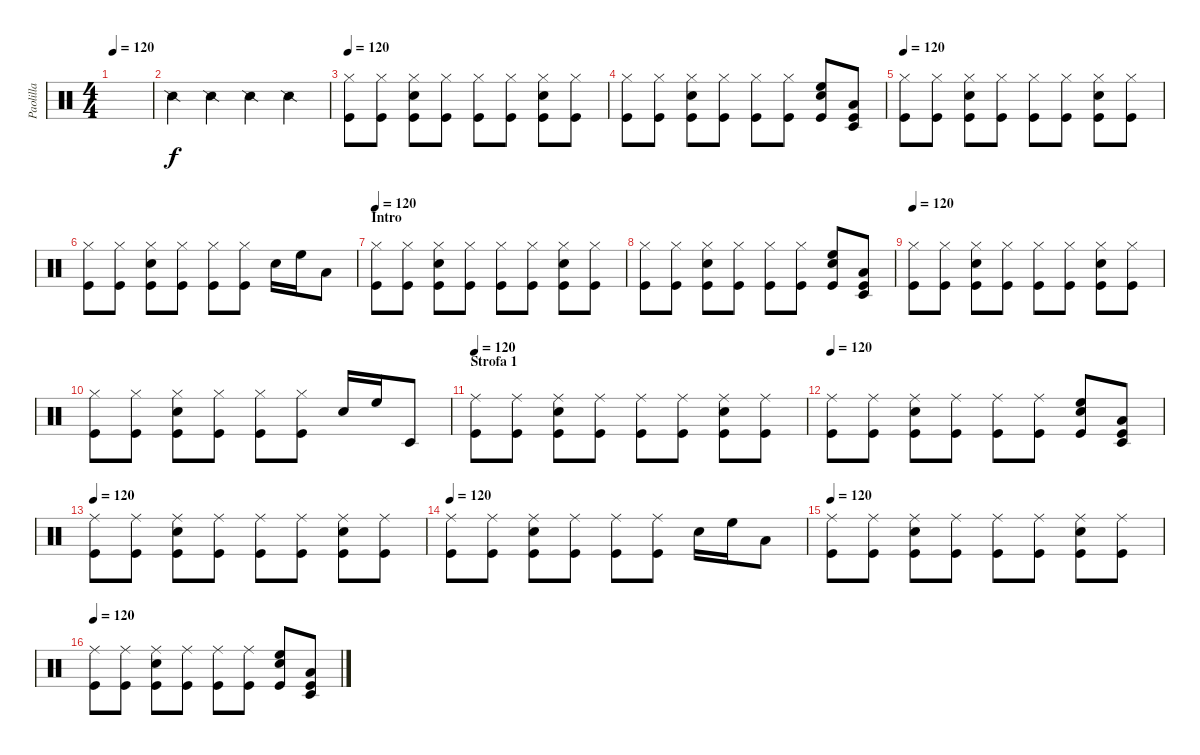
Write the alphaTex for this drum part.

\track ("Paolilla" "Paolilla") {instrument percussion}
\staff {score}
\articulation defaults
\ts (4 4)
\tempo 120
\clef neutral
\ks c
|
"Snare (side stick) 2".4 "Snare (side stick) 2".4 "Snare (side stick) 2".4 "Snare (side stick) 2".4 |
\tempo 120
("Hi-Hat (closed)" "Kick (hit)").8 ("Hi-Hat (closed)" "Kick (hit)").8 ("Hi-Hat (closed)" "Snare (hit) 2" "Kick (hit)").8 ("Hi-Hat (closed)" "Kick (hit)").8 ("Hi-Hat (closed)" "Kick (hit)").8 ("Hi-Hat (closed)" "Kick (hit)").8 ("Hi-Hat (closed)" "Snare (hit) 2" "Kick (hit)").8 ("Hi-Hat (closed)" "Kick (hit)").8 |
("Hi-Hat (closed)" "Kick (hit)").8 ("Hi-Hat (closed)" "Kick (hit)").8 ("Hi-Hat (closed)" "Snare (hit) 2" "Kick (hit)").8 ("Hi-Hat (closed)" "Kick (hit)").8 ("Hi-Hat (closed)" "Kick (hit)").8 ("Hi-Hat (closed)" "Kick (hit)").8 ("Snare (hit) 2" "High Floor Tom (hit)" "Kick (hit)").8 ("Timbale low (hit)" "Low Tom (hit)" "Kick (hit)").8 |
\tempo 120
("Hi-Hat (closed)" "Kick (hit)").8 ("Hi-Hat (closed)" "Kick (hit)").8 ("Hi-Hat (closed)" "Snare (hit) 2" "Kick (hit)").8 ("Hi-Hat (closed)" "Kick (hit)").8 ("Hi-Hat (closed)" "Kick (hit)").8 ("Hi-Hat (closed)" "Kick (hit)").8 ("Hi-Hat (closed)" "Snare (hit) 2" "Kick (hit)").8 ("Hi-Hat (closed)" "Kick (hit)").8 |
("Hi-Hat (closed)" "Kick (hit)").8 ("Hi-Hat (closed)" "Kick (hit)").8 ("Hi-Hat (closed)" "Snare (hit) 2" "Kick (hit)").8 ("Hi-Hat (closed)" "Kick (hit)").8 ("Hi-Hat (closed)" "Kick (hit)").8 ("Hi-Hat (closed)" "Kick (hit)").8 "Snare (hit) 2".16 "High Floor Tom (hit)".16 "Low Tom (hit)".8 |
\section ("" "Intro")
\tempo 120
("Hi-Hat (closed)" "Kick (hit)").8 ("Hi-Hat (closed)" "Kick (hit)").8 ("Hi-Hat (closed)" "Snare (hit) 2" "Kick (hit)").8 ("Hi-Hat (closed)" "Kick (hit)").8 ("Hi-Hat (closed)" "Kick (hit)").8 ("Hi-Hat (closed)" "Kick (hit)").8 ("Hi-Hat (closed)" "Snare (hit) 2" "Kick (hit)").8 ("Hi-Hat (closed)" "Kick (hit)").8 |
("Hi-Hat (closed)" "Kick (hit)").8 ("Hi-Hat (closed)" "Kick (hit)").8 ("Hi-Hat (closed)" "Snare (hit) 2" "Kick (hit)").8 ("Hi-Hat (closed)" "Kick (hit)").8 ("Hi-Hat (closed)" "Kick (hit)").8 ("Hi-Hat (closed)" "Kick (hit)").8 ("Snare (hit) 2" "High Floor Tom (hit)" "Kick (hit)").8 ("Timbale low (hit)" "Low Tom (hit)" "Kick (hit)").8 |
\tempo 120
("Hi-Hat (closed)" "Kick (hit)").8 ("Hi-Hat (closed)" "Kick (hit)").8 ("Hi-Hat (closed)" "Snare (hit) 2" "Kick (hit)").8 ("Hi-Hat (closed)" "Kick (hit)").8 ("Hi-Hat (closed)" "Kick (hit)").8 ("Hi-Hat (closed)" "Kick (hit)").8 ("Hi-Hat (closed)" "Snare (hit) 2" "Kick (hit)").8 ("Hi-Hat (closed)" "Kick (hit)").8 |
("Hi-Hat (closed)" "Kick (hit)").8 ("Hi-Hat (closed)" "Kick (hit)").8 ("Hi-Hat (closed)" "Snare (hit) 2" "Kick (hit)").8 ("Hi-Hat (closed)" "Kick (hit)").8 ("Hi-Hat (closed)" "Kick (hit)").8 ("Hi-Hat (closed)" "Kick (hit)").8 "Snare (hit) 2".16 "High Floor Tom (hit)".16 "Timbale low (hit)".8 |
\section ("" "Strofa 1")
\tempo 120
("Ride (middle)" "Kick (hit)").8 ("Ride (middle)" "Kick (hit)").8 ("Ride (middle)" "Snare (hit) 2" "Kick (hit)").8 ("Ride (middle)" "Kick (hit)").8 ("Ride (middle)" "Kick (hit)").8 ("Ride (middle)" "Kick (hit)").8 ("Ride (middle)" "Snare (hit) 2" "Kick (hit)").8 ("Ride (middle)" "Kick (hit)").8 |
\tempo 120
("Ride (middle)" "Kick (hit)").8 ("Ride (middle)" "Kick (hit)").8 ("Ride (middle)" "Snare (hit) 2" "Kick (hit)").8 ("Ride (middle)" "Kick (hit)").8 ("Ride (middle)" "Kick (hit)").8 ("Ride (middle)" "Kick (hit)").8 ("Snare (hit) 2" "High Floor Tom (hit)" "Kick (hit)").8 ("Timbale low (hit)" "Low Tom (hit)" "Kick (hit)").8 |
\tempo 120
("Ride (middle)" "Kick (hit)").8 ("Ride (middle)" "Kick (hit)").8 ("Ride (middle)" "Snare (hit) 2" "Kick (hit)").8 ("Ride (middle)" "Kick (hit)").8 ("Ride (middle)" "Kick (hit)").8 ("Ride (middle)" "Kick (hit)").8 ("Ride (middle)" "Snare (hit) 2" "Kick (hit)").8 ("Ride (middle)" "Kick (hit)").8 |
\tempo 120
("Ride (middle)" "Kick (hit)").8 ("Ride (middle)" "Kick (hit)").8 ("Ride (middle)" "Snare (hit) 2" "Kick (hit)").8 ("Ride (middle)" "Kick (hit)").8 ("Ride (middle)" "Kick (hit)").8 ("Ride (middle)" "Kick (hit)").8 "Snare (hit) 2".16 "High Floor Tom (hit)".16 "Low Tom (hit)".8 |
\tempo 120
("Ride (middle)" "Kick (hit)").8 ("Ride (middle)" "Kick (hit)").8 ("Ride (middle)" "Snare (hit) 2" "Kick (hit)").8 ("Ride (middle)" "Kick (hit)").8 ("Ride (middle)" "Kick (hit)").8 ("Ride (middle)" "Kick (hit)").8 ("Ride (middle)" "Snare (hit) 2" "Kick (hit)").8 ("Ride (middle)" "Kick (hit)").8 |
\tempo 120
("Ride (middle)" "Kick (hit)").8 ("Ride (middle)" "Kick (hit)").8 ("Ride (middle)" "Snare (hit) 2" "Kick (hit)").8 ("Ride (middle)" "Kick (hit)").8 ("Ride (middle)" "Kick (hit)").8 ("Ride (middle)" "Kick (hit)").8 ("Snare (hit) 2" "High Floor Tom (hit)" "Kick (hit)").8 ("Timbale low (hit)" "Low Tom (hit)" "Kick (hit)").8
